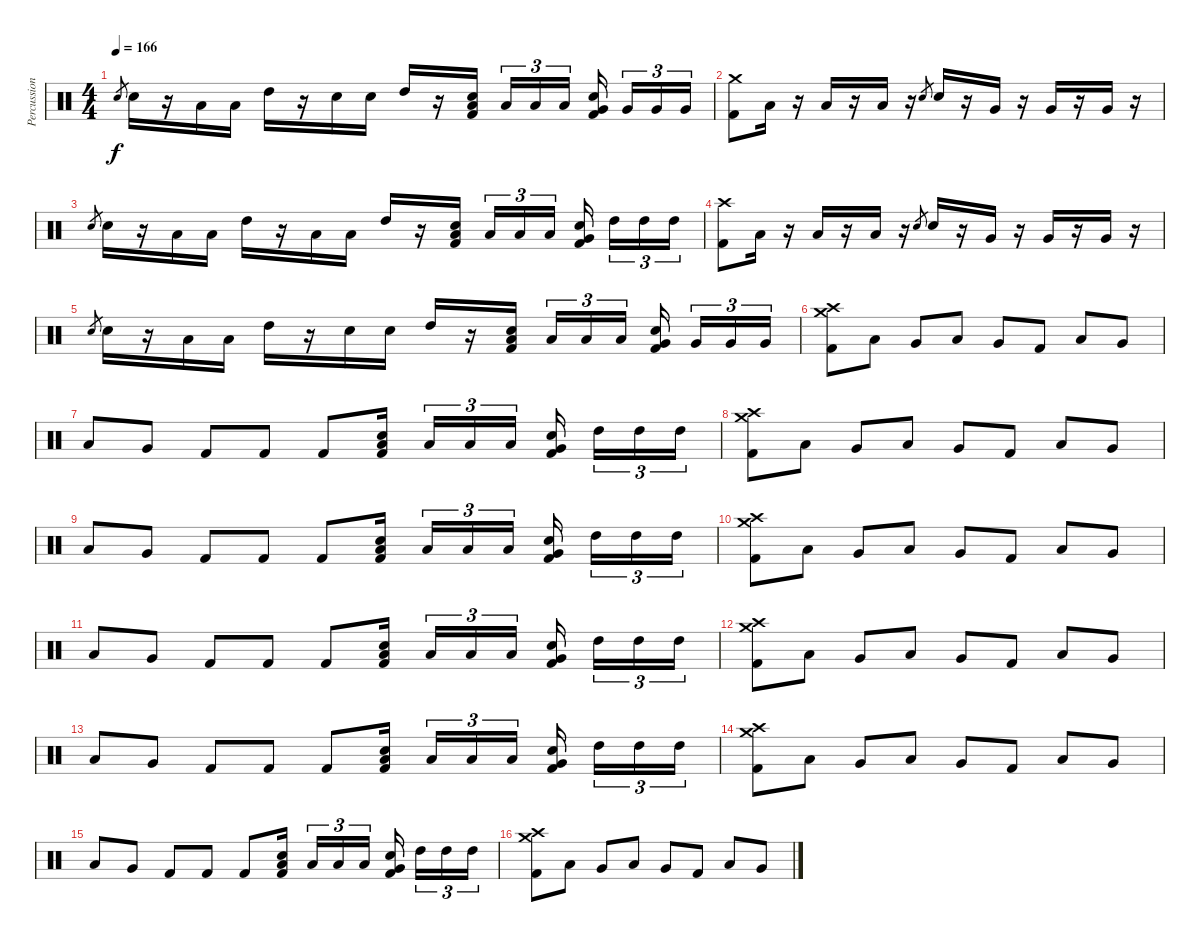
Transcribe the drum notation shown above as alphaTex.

\track ("Percussion" "Percussion") {instrument percussion}
\staff {score}
\articulation defaults
\ts (4 4)
\tempo 166
\clef neutral
\ks c "Snare (hit) 2".8{gr dy f} "Snare (hit) 2".16
r.16 "Low Tom (hit)".16 "Low Tom (hit)".16 "High Tom (hit)".16 r.16 "Snare (hit) 2".16 "Snare (hit) 2".16 "High Tom (hit)".16 r.16 ("Snare (hit) 2" "Low Floor Tom (hit)" "Kick (hit) 2").16 "Low Floor Tom (hit)".16{tu (3 2)} "Low Floor Tom (hit)".16{tu (3 2)} "Low Floor Tom (hit)".16{tu (3 2)} ("Snare (hit) 2" "Very Low Tom (hit)" "Kick (hit) 2").16 "Very Low Tom (hit)".16{tu (3 2)} "Very Low Tom (hit)".16{tu (3 2)} "Very Low Tom (hit)".16{tu (3 2)} |
("Crash medium (hit)" "Kick (hit) 2").8 "Low Floor Tom (hit)".16 r.16 "Low Floor Tom (hit)".16 r.16 "Low Floor Tom (hit)".16 r.16 "Snare (hit) 2".8{gr} "Snare (hit) 2".16 r.16 "Very Low Tom (hit)".16 r.16 "Very Low Tom (hit)".16 r.16 "Very Low Tom (hit)".16 r.16 |
"Snare (hit) 2".8{gr} "Snare (hit) 2".16 r.16 "Low Tom (hit)".16 "Low Tom (hit)".16 "High Tom (hit)".16 r.16 "Low Tom (hit)".16 "Low Tom (hit)".16 "High Tom (hit)".16 r.16 ("Low Floor Tom (hit)" "Snare (hit) 2" "Kick (hit) 2").16 "Low Tom (hit)".16{tu (3 2)} "Low Tom (hit)".16{tu (3 2)} "Low Tom (hit)".16{tu (3 2)} ("Very Low Tom (hit)" "Snare (hit) 2" "Kick (hit) 2").16 "High Tom (hit)".16{tu (3 2)} "High Tom (hit)".16{tu (3 2)} "High Tom (hit)".16{tu (3 2)} |
("Crash high (hit)" "Kick (hit) 2").8 "Low Floor Tom (hit)".16 r.16 "Low Floor Tom (hit)".16 r.16 "Low Floor Tom (hit)".16 r.16 "Snare (hit) 2".8{gr} "Snare (hit) 2".16 r.16 "Very Low Tom (hit)".16 r.16 "Very Low Tom (hit)".16 r.16 "Very Low Tom (hit)".16 r.16 |
"Snare (hit) 2".8{gr} "Snare (hit) 2".16 r.16 "Low Tom (hit)".16 "Low Tom (hit)".16 "High Tom (hit)".16 r.16 "Snare (hit) 2".16 "Snare (hit) 2".16 "High Tom (hit)".16 r.16 ("Snare (hit) 2" "Low Floor Tom (hit)" "Kick (hit) 2").16 "Low Floor Tom (hit)".16{tu (3 2)} "Low Floor Tom (hit)".16{tu (3 2)} "Low Floor Tom (hit)".16{tu (3 2)} ("Snare (hit) 2" "Very Low Tom (hit)" "Kick (hit) 2").16 "Very Low Tom (hit)".16{tu (3 2)} "Very Low Tom (hit)".16{tu (3 2)} "Very Low Tom (hit)".16{tu (3 2)} |
("Crash medium (hit)" "Crash high (hit)" "Kick (hit) 2").8 "Low Floor Tom (hit)".8 "Very Low Tom (hit)".8 "Low Floor Tom (hit)".8 "Very Low Tom (hit)".8 "Kick (hit) 2".8 "Low Floor Tom (hit)".8 "Very Low Tom (hit)".8 |
"Low Floor Tom (hit)".8 "Very Low Tom (hit)".8 "Kick (hit) 2".8 "Kick (hit) 2".8 "Kick (hit) 2".8 ("Low Floor Tom (hit)" "Snare (hit) 2" "Kick (hit) 2").16 "Low Tom (hit)".16{tu (3 2)} "Low Tom (hit)".16{tu (3 2)} "Low Tom (hit)".16{tu (3 2)} ("Very Low Tom (hit)" "Snare (hit) 2" "Kick (hit) 2").16 "High Tom (hit)".16{tu (3 2)} "High Tom (hit)".16{tu (3 2)} "High Tom (hit)".16{tu (3 2)} |
("Crash high (hit)" "Crash medium (hit)" "Kick (hit) 2").8 "Low Floor Tom (hit)".8 "Very Low Tom (hit)".8 "Low Floor Tom (hit)".8 "Very Low Tom (hit)".8 "Kick (hit) 2".8 "Low Floor Tom (hit)".8 "Very Low Tom (hit)".8 |
"Low Floor Tom (hit)".8 "Very Low Tom (hit)".8 "Kick (hit) 2".8 "Kick (hit) 2".8 "Kick (hit) 2".8 ("Low Floor Tom (hit)" "Snare (hit) 2" "Kick (hit) 2").16 "Low Tom (hit)".16{tu (3 2)} "Low Tom (hit)".16{tu (3 2)} "Low Tom (hit)".16{tu (3 2)} ("Very Low Tom (hit)" "Snare (hit) 2" "Kick (hit) 2").16 "High Tom (hit)".16{tu (3 2)} "High Tom (hit)".16{tu (3 2)} "High Tom (hit)".16{tu (3 2)} |
("Crash medium (hit)" "Crash high (hit)" "Kick (hit) 2").8 "Low Floor Tom (hit)".8 "Very Low Tom (hit)".8 "Low Floor Tom (hit)".8 "Very Low Tom (hit)".8 "Kick (hit) 2".8 "Low Floor Tom (hit)".8 "Very Low Tom (hit)".8 |
"Low Floor Tom (hit)".8 "Very Low Tom (hit)".8 "Kick (hit) 2".8 "Kick (hit) 2".8 "Kick (hit) 2".8 ("Low Floor Tom (hit)" "Snare (hit) 2" "Kick (hit) 2").16 "Low Tom (hit)".16{tu (3 2)} "Low Tom (hit)".16{tu (3 2)} "Low Tom (hit)".16{tu (3 2)} ("Very Low Tom (hit)" "Snare (hit) 2" "Kick (hit) 2").16 "High Tom (hit)".16{tu (3 2)} "High Tom (hit)".16{tu (3 2)} "High Tom (hit)".16{tu (3 2)} |
("Crash high (hit)" "Crash medium (hit)" "Kick (hit) 2").8 "Low Floor Tom (hit)".8 "Very Low Tom (hit)".8 "Low Floor Tom (hit)".8 "Very Low Tom (hit)".8 "Kick (hit) 2".8 "Low Floor Tom (hit)".8 "Very Low Tom (hit)".8 |
"Low Floor Tom (hit)".8 "Very Low Tom (hit)".8 "Kick (hit) 2".8 "Kick (hit) 2".8 "Kick (hit) 2".8 ("Low Floor Tom (hit)" "Snare (hit) 2" "Kick (hit) 2").16 "Low Tom (hit)".16{tu (3 2)} "Low Tom (hit)".16{tu (3 2)} "Low Tom (hit)".16{tu (3 2)} ("Very Low Tom (hit)" "Snare (hit) 2" "Kick (hit) 2").16 "High Tom (hit)".16{tu (3 2)} "High Tom (hit)".16{tu (3 2)} "High Tom (hit)".16{tu (3 2)} |
("Crash medium (hit)" "Crash high (hit)" "Kick (hit) 2").8 "Low Floor Tom (hit)".8 "Very Low Tom (hit)".8 "Low Floor Tom (hit)".8 "Very Low Tom (hit)".8 "Kick (hit) 2".8 "Low Floor Tom (hit)".8 "Very Low Tom (hit)".8 |
"Low Floor Tom (hit)".8 "Very Low Tom (hit)".8 "Kick (hit) 2".8 "Kick (hit) 2".8 "Kick (hit) 2".8 ("Low Floor Tom (hit)" "Snare (hit) 2" "Kick (hit) 2").16 "Low Tom (hit)".16{tu (3 2)} "Low Tom (hit)".16{tu (3 2)} "Low Tom (hit)".16{tu (3 2)} ("Very Low Tom (hit)" "Snare (hit) 2" "Kick (hit) 2").16 "High Tom (hit)".16{tu (3 2)} "High Tom (hit)".16{tu (3 2)} "High Tom (hit)".16{tu (3 2)} |
("Crash high (hit)" "Crash medium (hit)" "Kick (hit) 2").8 "Low Floor Tom (hit)".8 "Very Low Tom (hit)".8 "Low Floor Tom (hit)".8 "Very Low Tom (hit)".8 "Kick (hit) 2".8 "Low Floor Tom (hit)".8 "Very Low Tom (hit)".8
